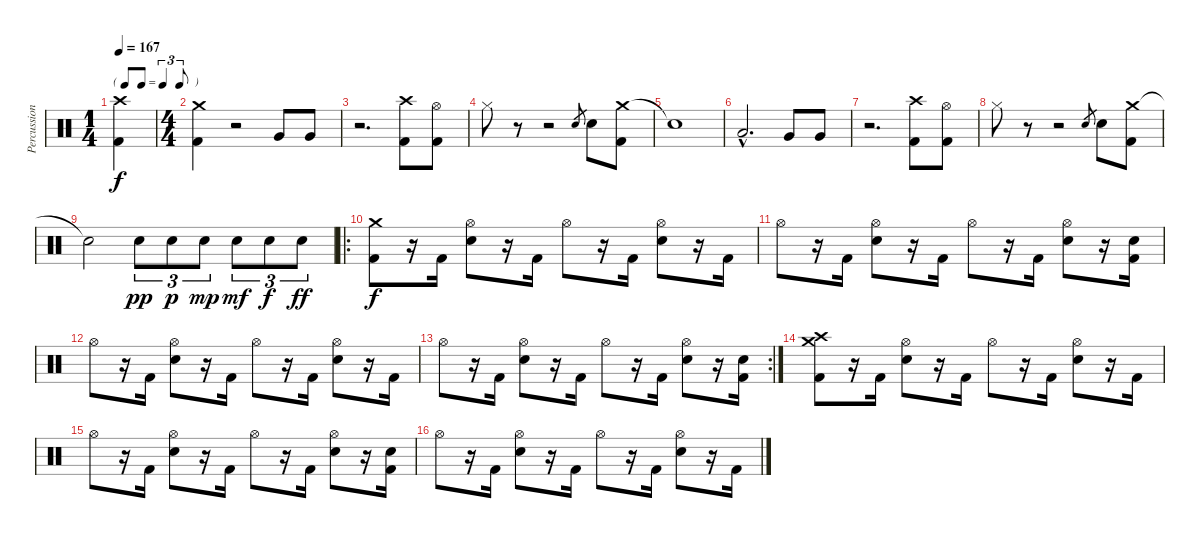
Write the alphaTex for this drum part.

\track ("Percussion" "Percussion") {instrument percussion}
\staff {score}
\articulation defaults
\ts (1 4)
\tf triplet8th
\tempo 167
\clef neutral
\ks c
("Crash high (hit)" "Kick (hit) 2").4{dy f} |
\ts (4 4)
("Crash medium (hit)" "Kick (hit) 2").4 r.2 "Very Low Tom (hit)".8 "Very Low Tom (hit)".8 |
r.2{d} ("Crash high (hit)" "Kick (hit) 2").8 ("Hi-Hat (open)" "Kick (hit) 2").8 |
"Hi-Hat (closed)".8 r.8 r.2 "Electric Snare (hit)".8{gr} "Electric Snare (hit)".8 ("Crash medium (hit)" "Kick (hit) 2").8 |
"Snare (hit)"{t}.1 |
"Low Floor Tom (hit)"{hac}.2{d} "Very Low Tom (hit)".8 "Very Low Tom (hit)".8 |
r.2{d} ("Crash high (hit)" "Kick (hit) 2").8 ("Hi-Hat (open)" "Kick (hit) 2").8 |
"Hi-Hat (closed)".8 r.8 r.2 "Electric Snare (hit)".8{gr} "Electric Snare (hit)".8 ("Crash medium (hit)" "Kick (hit) 2").8 |
"Snare (hit)"{t}.2 "Electric Snare (hit)".8{tu (3 2) dy pp} "Electric Snare (hit)".8{tu (3 2) dy p} "Electric Snare (hit)".8{tu (3 2) dy mp} "Electric Snare (hit)".8{tu (3 2) dy mf} "Electric Snare (hit)".8{tu (3 2) dy f} "Electric Snare (hit)".8{tu (3 2) dy ff} |
\ro
("Crash medium (hit)" "Kick (hit) 2").8{dy f} r.16 "Kick (hit) 2".16 ("Electric Snare (hit)" "Hi-Hat (open)").8 r.16 "Kick (hit) 2".16 "Hi-Hat (open)".8 r.16 "Kick (hit) 2".16 ("Hi-Hat (open)" "Electric Snare (hit)").8 r.16 "Kick (hit) 2".16 |
"Hi-Hat (open)".8 r.16 "Kick (hit) 2".16 ("Electric Snare (hit)" "Hi-Hat (open)").8 r.16 "Kick (hit) 2".16 "Hi-Hat (open)".8 r.16 "Kick (hit) 2".16 ("Hi-Hat (open)" "Electric Snare (hit)").8 r.16 ("Electric Snare (hit)" "Kick (hit) 2").16 |
"Hi-Hat (open)".8 r.16 "Kick (hit) 2".16 ("Electric Snare (hit)" "Hi-Hat (open)").8 r.16 "Kick (hit) 2".16 "Hi-Hat (open)".8 r.16 "Kick (hit) 2".16 ("Hi-Hat (open)" "Electric Snare (hit)").8 r.16 "Kick (hit) 2".16 |
\rc 2 "Hi-Hat (open)".8
r.16 "Kick (hit) 2".16 ("Electric Snare (hit)" "Hi-Hat (open)").8 r.16 "Kick (hit) 2".16 "Hi-Hat (open)".8 r.16 "Kick (hit) 2".16 ("Hi-Hat (open)" "Electric Snare (hit)").8 r.16 ("Electric Snare (hit)" "Kick (hit) 2").16 |
("Crash medium (hit)" "Crash high (hit)" "Kick (hit) 2").8 r.16 "Kick (hit) 2".16 ("Electric Snare (hit)" "Hi-Hat (open)").8 r.16 "Kick (hit) 2".16 "Hi-Hat (open)".8 r.16 "Kick (hit) 2".16 ("Hi-Hat (open)" "Electric Snare (hit)").8 r.16 "Kick (hit) 2".16 |
"Hi-Hat (open)".8 r.16 "Kick (hit) 2".16 ("Electric Snare (hit)" "Hi-Hat (open)").8 r.16 "Kick (hit) 2".16 "Hi-Hat (open)".8 r.16 "Kick (hit) 2".16 ("Hi-Hat (open)" "Electric Snare (hit)").8 r.16 ("Electric Snare (hit)" "Kick (hit) 2").16 |
"Hi-Hat (open)".8 r.16 "Kick (hit) 2".16 ("Electric Snare (hit)" "Hi-Hat (open)").8 r.16 "Kick (hit) 2".16 "Hi-Hat (open)".8 r.16 "Kick (hit) 2".16 ("Hi-Hat (open)" "Electric Snare (hit)").8 r.16 "Kick (hit) 2".16
